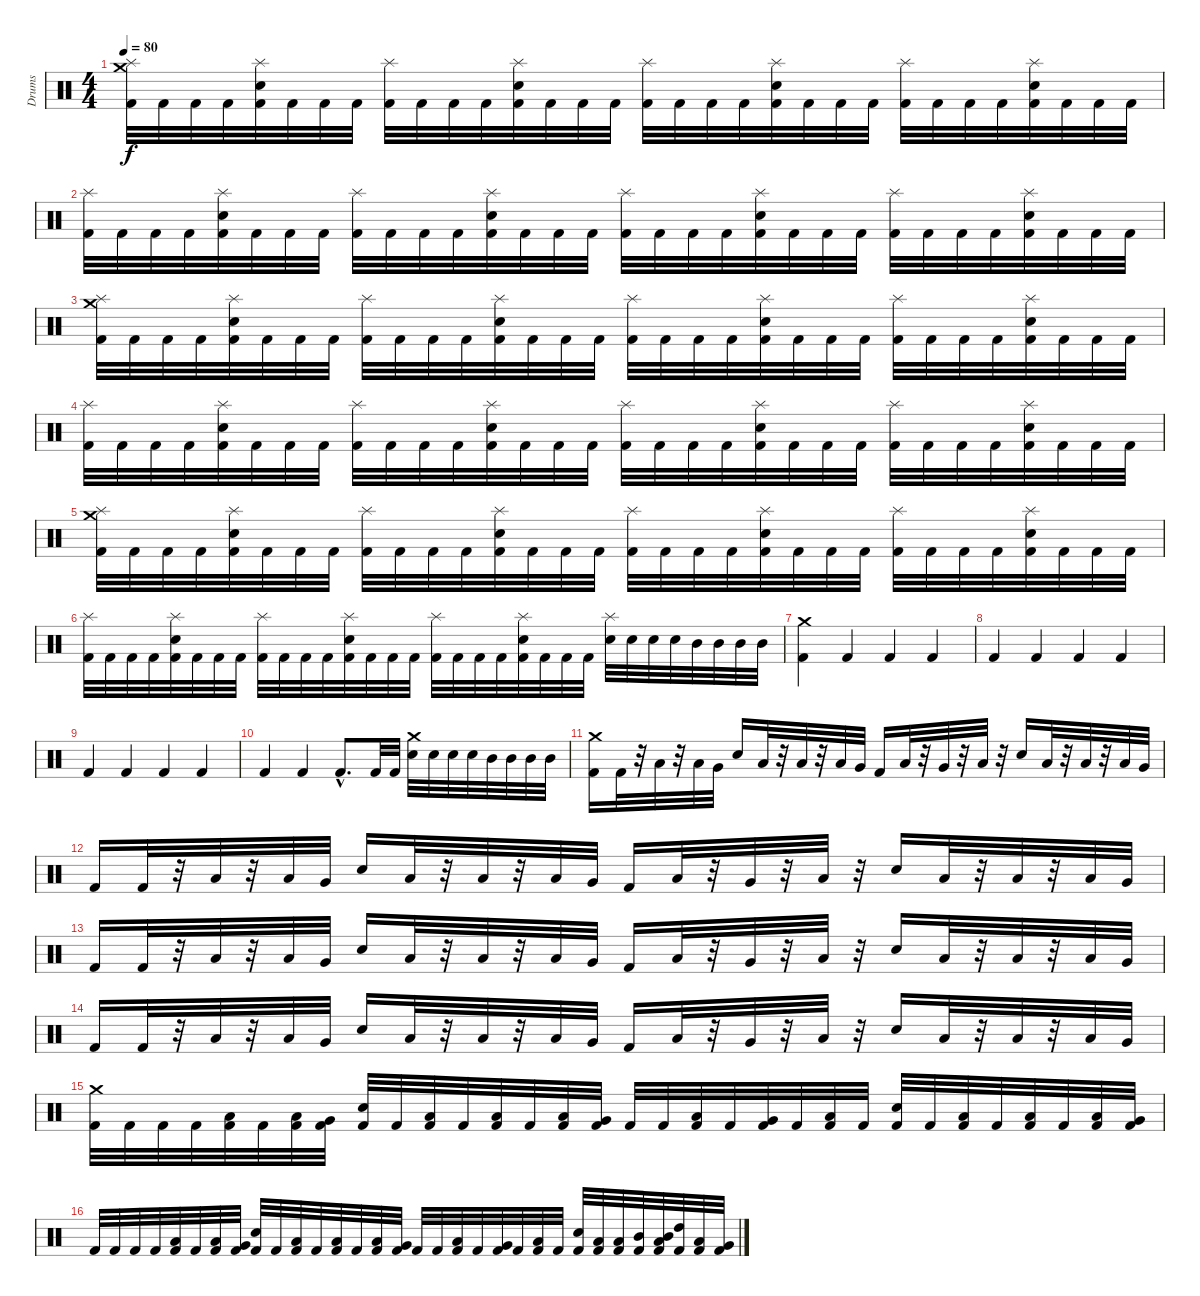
\track ("Drums" "Drums") {instrument percussion}
\staff {score}
\articulation defaults
\ts (4 4)
\tempo 80
\clef neutral
\ks c
("Crash medium (hit)" "Splash (hit)" "Kick (hit) 2").32{dy f} "Kick (hit) 2".32 "Kick (hit) 2".32 "Kick (hit) 2".32 ("Electric Snare (hit)" "Splash (hit)" "Kick (hit) 2").32 "Kick (hit) 2".32 "Kick (hit) 2".32 "Kick (hit) 2".32 ("Splash (hit)" "Kick (hit) 2").32 "Kick (hit) 2".32 "Kick (hit) 2".32 "Kick (hit) 2".32 ("Electric Snare (hit)" "Splash (hit)" "Kick (hit) 2").32 "Kick (hit) 2".32 "Kick (hit) 2".32 "Kick (hit) 2".32 ("Splash (hit)" "Kick (hit) 2").32 "Kick (hit) 2".32 "Kick (hit) 2".32 "Kick (hit) 2".32 ("Electric Snare (hit)" "Splash (hit)" "Kick (hit) 2").32 "Kick (hit) 2".32 "Kick (hit) 2".32 "Kick (hit) 2".32 ("Splash (hit)" "Kick (hit) 2").32 "Kick (hit) 2".32 "Kick (hit) 2".32 "Kick (hit) 2".32 ("Electric Snare (hit)" "Splash (hit)" "Kick (hit) 2").32 "Kick (hit) 2".32 "Kick (hit) 2".32 "Kick (hit) 2".32 |
("Splash (hit)" "Kick (hit) 2").32 "Kick (hit) 2".32 "Kick (hit) 2".32 "Kick (hit) 2".32 ("Electric Snare (hit)" "Splash (hit)" "Kick (hit) 2").32 "Kick (hit) 2".32 "Kick (hit) 2".32 "Kick (hit) 2".32 ("Splash (hit)" "Kick (hit) 2").32 "Kick (hit) 2".32 "Kick (hit) 2".32 "Kick (hit) 2".32 ("Electric Snare (hit)" "Splash (hit)" "Kick (hit) 2").32 "Kick (hit) 2".32 "Kick (hit) 2".32 "Kick (hit) 2".32 ("Splash (hit)" "Kick (hit) 2").32 "Kick (hit) 2".32 "Kick (hit) 2".32 "Kick (hit) 2".32 ("Electric Snare (hit)" "Splash (hit)" "Kick (hit) 2").32 "Kick (hit) 2".32 "Kick (hit) 2".32 "Kick (hit) 2".32 ("Splash (hit)" "Kick (hit) 2").32 "Kick (hit) 2".32 "Kick (hit) 2".32 "Kick (hit) 2".32 ("Electric Snare (hit)" "Splash (hit)" "Kick (hit) 2").32 "Kick (hit) 2".32 "Kick (hit) 2".32 "Kick (hit) 2".32 |
("Crash medium (hit)" "Splash (hit)" "Kick (hit) 2").32 "Kick (hit) 2".32 "Kick (hit) 2".32 "Kick (hit) 2".32 ("Electric Snare (hit)" "Splash (hit)" "Kick (hit) 2").32 "Kick (hit) 2".32 "Kick (hit) 2".32 "Kick (hit) 2".32 ("Splash (hit)" "Kick (hit) 2").32 "Kick (hit) 2".32 "Kick (hit) 2".32 "Kick (hit) 2".32 ("Electric Snare (hit)" "Splash (hit)" "Kick (hit) 2").32 "Kick (hit) 2".32 "Kick (hit) 2".32 "Kick (hit) 2".32 ("Splash (hit)" "Kick (hit) 2").32 "Kick (hit) 2".32 "Kick (hit) 2".32 "Kick (hit) 2".32 ("Electric Snare (hit)" "Splash (hit)" "Kick (hit) 2").32 "Kick (hit) 2".32 "Kick (hit) 2".32 "Kick (hit) 2".32 ("Splash (hit)" "Kick (hit) 2").32 "Kick (hit) 2".32 "Kick (hit) 2".32 "Kick (hit) 2".32 ("Electric Snare (hit)" "Splash (hit)" "Kick (hit) 2").32 "Kick (hit) 2".32 "Kick (hit) 2".32 "Kick (hit) 2".32 |
("Splash (hit)" "Kick (hit) 2").32 "Kick (hit) 2".32 "Kick (hit) 2".32 "Kick (hit) 2".32 ("Electric Snare (hit)" "Splash (hit)" "Kick (hit) 2").32 "Kick (hit) 2".32 "Kick (hit) 2".32 "Kick (hit) 2".32 ("Splash (hit)" "Kick (hit) 2").32 "Kick (hit) 2".32 "Kick (hit) 2".32 "Kick (hit) 2".32 ("Electric Snare (hit)" "Splash (hit)" "Kick (hit) 2").32 "Kick (hit) 2".32 "Kick (hit) 2".32 "Kick (hit) 2".32 ("Splash (hit)" "Kick (hit) 2").32 "Kick (hit) 2".32 "Kick (hit) 2".32 "Kick (hit) 2".32 ("Electric Snare (hit)" "Splash (hit)" "Kick (hit) 2").32 "Kick (hit) 2".32 "Kick (hit) 2".32 "Kick (hit) 2".32 ("Splash (hit)" "Kick (hit) 2").32 "Kick (hit) 2".32 "Kick (hit) 2".32 "Kick (hit) 2".32 ("Electric Snare (hit)" "Splash (hit)" "Kick (hit) 2").32 "Kick (hit) 2".32 "Kick (hit) 2".32 "Kick (hit) 2".32 |
("Crash medium (hit)" "Splash (hit)" "Kick (hit) 2").32 "Kick (hit) 2".32 "Kick (hit) 2".32 "Kick (hit) 2".32 ("Electric Snare (hit)" "Splash (hit)" "Kick (hit) 2").32 "Kick (hit) 2".32 "Kick (hit) 2".32 "Kick (hit) 2".32 ("Splash (hit)" "Kick (hit) 2").32 "Kick (hit) 2".32 "Kick (hit) 2".32 "Kick (hit) 2".32 ("Electric Snare (hit)" "Splash (hit)" "Kick (hit) 2").32 "Kick (hit) 2".32 "Kick (hit) 2".32 "Kick (hit) 2".32 ("Splash (hit)" "Kick (hit) 2").32 "Kick (hit) 2".32 "Kick (hit) 2".32 "Kick (hit) 2".32 ("Electric Snare (hit)" "Splash (hit)" "Kick (hit) 2").32 "Kick (hit) 2".32 "Kick (hit) 2".32 "Kick (hit) 2".32 ("Splash (hit)" "Kick (hit) 2").32 "Kick (hit) 2".32 "Kick (hit) 2".32 "Kick (hit) 2".32 ("Electric Snare (hit)" "Splash (hit)" "Kick (hit) 2").32 "Kick (hit) 2".32 "Kick (hit) 2".32 "Kick (hit) 2".32 |
("Splash (hit)" "Kick (hit) 2").32 "Kick (hit) 2".32 "Kick (hit) 2".32 "Kick (hit) 2".32 ("Electric Snare (hit)" "Splash (hit)" "Kick (hit) 2").32 "Kick (hit) 2".32 "Kick (hit) 2".32 "Kick (hit) 2".32 ("Splash (hit)" "Kick (hit) 2").32 "Kick (hit) 2".32 "Kick (hit) 2".32 "Kick (hit) 2".32 ("Electric Snare (hit)" "Splash (hit)" "Kick (hit) 2").32 "Kick (hit) 2".32 "Kick (hit) 2".32 "Kick (hit) 2".32 ("Splash (hit)" "Kick (hit) 2").32 "Kick (hit) 2".32 "Kick (hit) 2".32 "Kick (hit) 2".32 ("Electric Snare (hit)" "Splash (hit)" "Kick (hit) 2").32 "Kick (hit) 2".32 "Kick (hit) 2".32 "Kick (hit) 2".32 ("Splash (hit)" "Electric Snare (hit)").32 "Electric Snare (hit)".32 "Electric Snare (hit)".32 "Electric Snare (hit)".32 "Mid Tom (hit)".32 "Mid Tom (hit)".32 "Mid Tom (hit)".32 "Mid Tom (hit)".32 |
("Crash medium (hit)" "Kick (hit) 2").4 "Kick (hit) 2".4 "Kick (hit) 2".4 "Kick (hit) 2".4 |
"Kick (hit) 2".4 "Kick (hit) 2".4 "Kick (hit) 2".4 "Kick (hit) 2".4 |
"Kick (hit) 2".4 "Kick (hit) 2".4 "Kick (hit) 2".4 "Kick (hit) 2".4 |
"Kick (hit) 2".4 "Kick (hit) 2".4 "Kick (hit) 2"{hac}.8{d} "Kick (hit) 2".32 "Kick (hit) 2".32 ("Crash medium (hit)" "Electric Snare (hit)").32 "Electric Snare (hit)".32 "Electric Snare (hit)".32 "Electric Snare (hit)".32 "Mid Tom (hit)".32 "Mid Tom (hit)".32 "Mid Tom (hit)".32 "Mid Tom (hit)".32 |
("Crash medium (hit)" "Kick (hit) 2").16 "Kick (hit) 2".32 r.32 "Low Tom (hit)".32 r.32 "Low Tom (hit)".32 "Very Low Tom (hit)".32 "Electric Snare (hit)".16 "Low Tom (hit)".32 r.32 "Low Floor Tom (hit)".32 r.32 "Low Tom (hit)".32 "Very Low Tom (hit)".32 "Kick (hit) 2".16 "Low Floor Tom (hit)".32 r.32 "Very Low Tom (hit)".32 r.32 "Low Tom (hit)".32 r.32 "Electric Snare (hit)".16 "Low Tom (hit)".32 r.32 "Low Floor Tom (hit)".32 r.32 "Low Tom (hit)".32 "Very Low Tom (hit)".32 |
"Kick (hit) 2".16 "Kick (hit) 2".32 r.32 "Low Tom (hit)".32 r.32 "Low Tom (hit)".32 "Very Low Tom (hit)".32 "Electric Snare (hit)".16 "Low Tom (hit)".32 r.32 "Low Floor Tom (hit)".32 r.32 "Low Tom (hit)".32 "Very Low Tom (hit)".32 "Kick (hit) 2".16 "Low Floor Tom (hit)".32 r.32 "Very Low Tom (hit)".32 r.32 "Low Tom (hit)".32 r.32 "Electric Snare (hit)".16 "Low Tom (hit)".32 r.32 "Low Floor Tom (hit)".32 r.32 "Low Tom (hit)".32 "Very Low Tom (hit)".32 |
"Kick (hit) 2".16 "Kick (hit) 2".32 r.32 "Low Tom (hit)".32 r.32 "Low Tom (hit)".32 "Very Low Tom (hit)".32 "Electric Snare (hit)".16 "Low Tom (hit)".32 r.32 "Low Floor Tom (hit)".32 r.32 "Low Tom (hit)".32 "Very Low Tom (hit)".32 "Kick (hit) 2".16 "Low Floor Tom (hit)".32 r.32 "Very Low Tom (hit)".32 r.32 "Low Tom (hit)".32 r.32 "Electric Snare (hit)".16 "Low Tom (hit)".32 r.32 "Low Floor Tom (hit)".32 r.32 "Low Tom (hit)".32 "Very Low Tom (hit)".32 |
"Kick (hit) 2".16 "Kick (hit) 2".32 r.32 "Low Tom (hit)".32 r.32 "Low Tom (hit)".32 "Very Low Tom (hit)".32 "Electric Snare (hit)".16 "Low Tom (hit)".32 r.32 "Low Floor Tom (hit)".32 r.32 "Low Tom (hit)".32 "Very Low Tom (hit)".32 "Kick (hit) 2".16 "Low Floor Tom (hit)".32 r.32 "Very Low Tom (hit)".32 r.32 "Low Tom (hit)".32 r.32 "Electric Snare (hit)".16 "Low Tom (hit)".32 r.32 "Low Floor Tom (hit)".32 r.32 "Low Tom (hit)".32 "Very Low Tom (hit)".32 |
("Crash medium (hit)" "Kick (hit) 2").32 "Kick (hit) 2".32 "Kick (hit) 2".32 "Kick (hit) 2".32 ("Kick (hit) 2" "Low Tom (hit)").32 "Kick (hit) 2".32 ("Kick (hit) 2" "Low Tom (hit)").32 ("Kick (hit) 2" "Very Low Tom (hit)").32 ("Kick (hit) 2" "Electric Snare (hit)").32 "Kick (hit) 2".32 ("Kick (hit) 2" "Low Tom (hit)").32 "Kick (hit) 2".32 ("Kick (hit) 2" "Low Floor Tom (hit)").32 "Kick (hit) 2".32 ("Kick (hit) 2" "Low Tom (hit)").32 ("Kick (hit) 2" "Very Low Tom (hit)").32 "Kick (hit) 2".32 "Kick (hit) 2".32 ("Kick (hit) 2" "Low Floor Tom (hit)").32 "Kick (hit) 2".32 ("Kick (hit) 2" "Very Low Tom (hit)").32 "Kick (hit) 2".32 ("Kick (hit) 2" "Low Tom (hit)").32 "Kick (hit) 2".32 ("Kick (hit) 2" "Electric Snare (hit)").32 "Kick (hit) 2".32 ("Kick (hit) 2" "Low Tom (hit)").32 "Kick (hit) 2".32 ("Kick (hit) 2" "Low Floor Tom (hit)").32 "Kick (hit) 2".32 ("Kick (hit) 2" "Low Tom (hit)").32 ("Kick (hit) 2" "Very Low Tom (hit)").32 |
"Kick (hit) 2".32 "Kick (hit) 2".32 "Kick (hit) 2".32 "Kick (hit) 2".32 ("Kick (hit) 2" "Low Tom (hit)").32 "Kick (hit) 2".32 ("Kick (hit) 2" "Low Tom (hit)").32 ("Kick (hit) 2" "Very Low Tom (hit)").32 ("Kick (hit) 2" "Electric Snare (hit)").32 "Kick (hit) 2".32 ("Kick (hit) 2" "Low Tom (hit)").32 "Kick (hit) 2".32 ("Kick (hit) 2" "Low Floor Tom (hit)").32 "Kick (hit) 2".32 ("Kick (hit) 2" "Low Tom (hit)").32 ("Kick (hit) 2" "Very Low Tom (hit)").32 "Kick (hit) 2".32 "Kick (hit) 2".32 ("Kick (hit) 2" "Low Floor Tom (hit)").32 "Kick (hit) 2".32 ("Kick (hit) 2" "Very Low Tom (hit)").32 "Kick (hit) 2".32 ("Kick (hit) 2" "Low Tom (hit)").32 "Kick (hit) 2".32 ("Kick (hit) 2" "Electric Snare (hit)").32 ("Low Tom (hit)" "Kick (hit) 2").32 ("Kick (hit) 2" "Low Tom (hit)").32 ("Mid Tom (hit)" "Kick (hit) 2").32 ("Mid Tom (hit)" "Kick (hit) 2" "Low Floor Tom (hit)").32 ("High Tom (hit)" "Kick (hit) 2").32 ("Kick (hit) 2" "Low Tom (hit)").32 ("Kick (hit) 2" "Very Low Tom (hit)").32
